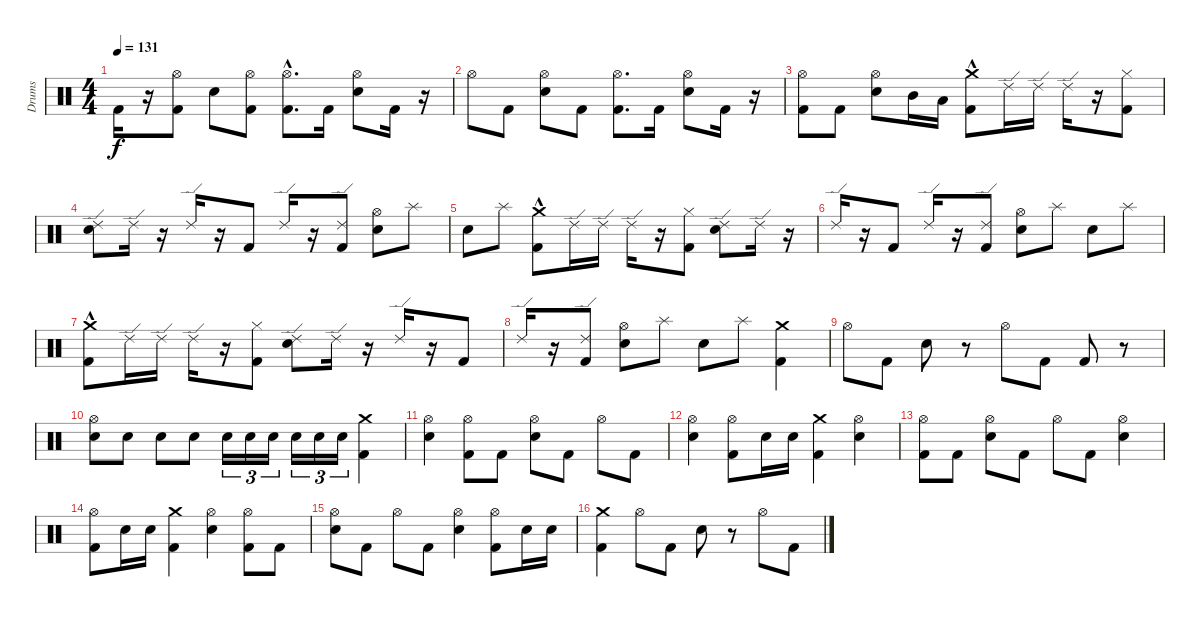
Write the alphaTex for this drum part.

\track ("Drums" "Drums") {instrument percussion}
\staff {score}
\articulation defaults
\ts (4 4)
\tempo 131
\clef neutral
\ks c "Kick (hit) 2".16{dy f}
r.16 ("Kick (hit) 2" "Hi-Hat (open)").8 "Electric Snare (hit)".8 ("Kick (hit) 2" "Hi-Hat (open)").8 ("Hi-Hat (open)" "Kick (hit) 2"{hac}).8{d} "Kick (hit) 2".16 ("Hi-Hat (open)" "Electric Snare (hit)").8 "Kick (hit) 2".16 r.16 |
"Hi-Hat (open)".8 "Kick (hit) 2".8 ("Hi-Hat (open)" "Electric Snare (hit)").8 "Kick (hit) 2".8 ("Hi-Hat (open)" "Kick (hit) 2").8{d} "Kick (hit) 2".16 ("Electric Snare (hit)" "Hi-Hat (open)").8 "Kick (hit) 2".16 r.16 |
("Kick (hit) 2" "Hi-Hat (open)").8 "Kick (hit) 2".8 ("Electric Snare (hit)" "Hi-Hat (open)").8 "Mid Tom (hit)".16 "Low Tom (hit)".16 ("Crash medium (hit)" "Kick (hit) 2"{hac}).8 "Ride (edge) 2".16 "Ride (edge) 2".16 "Ride (edge) 2".16 r.16 ("Hi-Hat (closed)" "Kick (hit) 2").8 |
("Ride (edge) 2" "Electric Snare (hit)").8 "Ride (edge) 2".16 r.16 "Ride (edge) 2".16 r.16 "Kick (hit) 2".8 "Ride (edge) 2".16 r.16 ("Ride (edge) 2" "Kick (hit) 2").8 ("Hi-Hat (open)" "Electric Snare (hit)").8 "Splash (hit)".8 |
"Electric Snare (hit)".8 "Splash (hit)".8 ("Crash medium (hit)" "Kick (hit) 2"{hac}).8 "Ride (edge) 2".16 "Ride (edge) 2".16 "Ride (edge) 2".16 r.16 ("Hi-Hat (closed)" "Kick (hit) 2").8 ("Ride (edge) 2" "Electric Snare (hit)").8 "Ride (edge) 2".16 r.16 |
"Ride (edge) 2".16 r.16 "Kick (hit) 2".8 "Ride (edge) 2".16 r.16 ("Ride (edge) 2" "Kick (hit) 2").8 ("Hi-Hat (open)" "Electric Snare (hit)").8 "Splash (hit)".8 "Electric Snare (hit)".8 "Splash (hit)".8 |
("Crash medium (hit)" "Kick (hit) 2"{hac}).8 "Ride (edge) 2".16 "Ride (edge) 2".16 "Ride (edge) 2".16 r.16 ("Hi-Hat (closed)" "Kick (hit) 2").8 ("Ride (edge) 2" "Electric Snare (hit)").8 "Ride (edge) 2".16 r.16 "Ride (edge) 2".16 r.16 "Kick (hit) 2".8 |
"Ride (edge) 2".16 r.16 ("Ride (edge) 2" "Kick (hit) 2").8 ("Hi-Hat (open)" "Electric Snare (hit)").8 "Splash (hit)".8 "Electric Snare (hit)".8 "Splash (hit)".8 ("Crash medium (hit)" "Kick (hit) 2").4 |
"Hi-Hat (open)".8 "Kick (hit) 2".8 "Electric Snare (hit)".8 r.8 "Hi-Hat (open)".8 "Kick (hit) 2".8 "Kick (hit) 2".8 r.8 |
("Hi-Hat (open)" "Electric Snare (hit)").8{volume 8} "Electric Snare (hit)".8{volume 10} "Electric Snare (hit)".8{volume 12} "Electric Snare (hit)".8{volume 14} "Electric Snare (hit)".16{tu (3 2) volume 16} "Electric Snare (hit)".16{tu (3 2)} "Electric Snare (hit)".16{tu (3 2)} "Electric Snare (hit)".16{tu (3 2)} "Electric Snare (hit)".16{tu (3 2)} "Electric Snare (hit)".16{tu (3 2)} ("Crash medium (hit)" "Kick (hit) 2").4 |
("Hi-Hat (open)" "Electric Snare (hit)").4 ("Hi-Hat (open)" "Kick (hit) 2").8 "Kick (hit) 2".8 ("Hi-Hat (open)" "Electric Snare (hit)").8 "Kick (hit) 2".8 "Hi-Hat (open)".8 "Kick (hit) 2".8 |
("Hi-Hat (open)" "Electric Snare (hit)").4 ("Hi-Hat (open)" "Kick (hit) 2").8 "Electric Snare (hit)".16 "Electric Snare (hit)".16 ("Crash medium (hit)" "Kick (hit) 2").4 ("Hi-Hat (open)" "Electric Snare (hit)").4 |
("Hi-Hat (open)" "Kick (hit) 2").8 "Kick (hit) 2".8 ("Hi-Hat (open)" "Electric Snare (hit)").8 "Kick (hit) 2".8 "Hi-Hat (open)".8 "Kick (hit) 2".8 ("Hi-Hat (open)" "Electric Snare (hit)").4 |
("Hi-Hat (open)" "Kick (hit) 2").8 "Electric Snare (hit)".16 "Electric Snare (hit)".16 ("Crash medium (hit)" "Kick (hit) 2").4 ("Hi-Hat (open)" "Electric Snare (hit)").4 ("Hi-Hat (open)" "Kick (hit) 2").8 "Kick (hit) 2".8 |
("Hi-Hat (open)" "Electric Snare (hit)").8 "Kick (hit) 2".8 "Hi-Hat (open)".8 "Kick (hit) 2".8 ("Hi-Hat (open)" "Electric Snare (hit)").4 ("Hi-Hat (open)" "Kick (hit) 2").8 "Electric Snare (hit)".16 "Electric Snare (hit)".16 |
("Crash medium (hit)" "Kick (hit) 2").4 "Hi-Hat (open)".8 "Kick (hit) 2".8 "Electric Snare (hit)".8 r.8 "Hi-Hat (open)".8 "Kick (hit) 2".8
